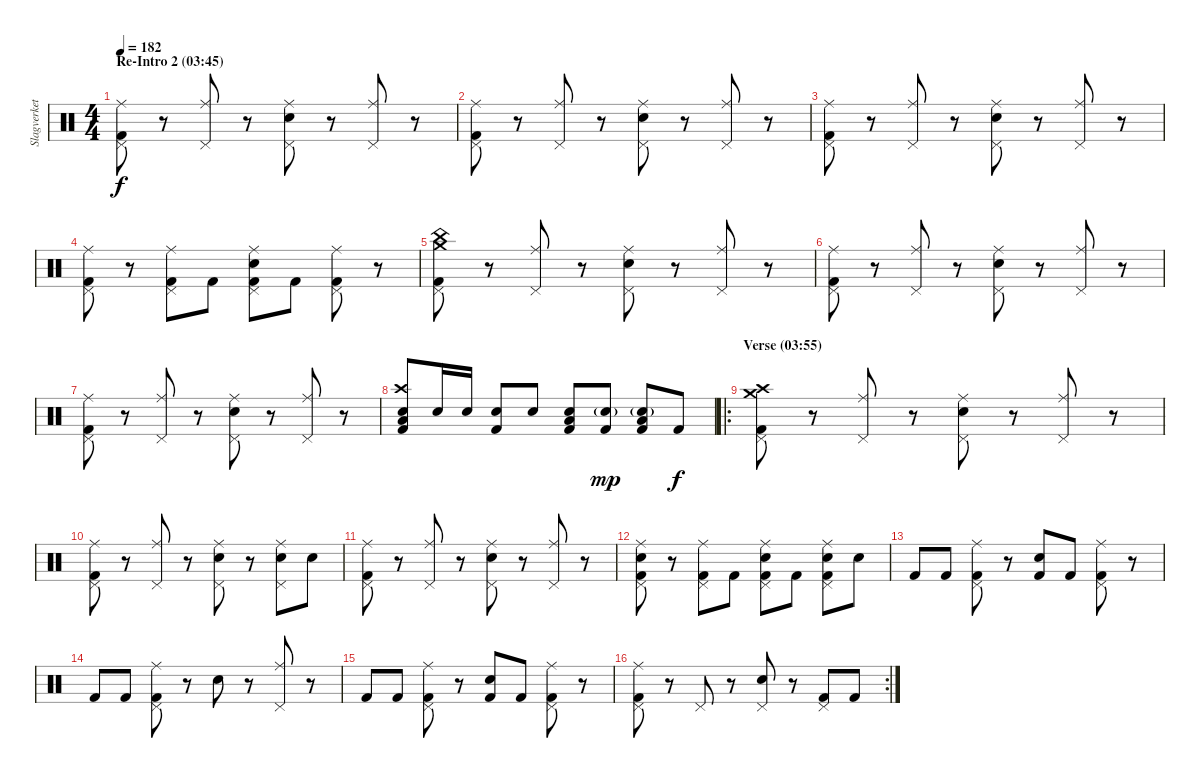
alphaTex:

\track ("Slagverket! =)" "Slagverket") {instrument percussion}
\staff {score}
\articulation defaults
\ts (4 4)
\section ("" "Re-Intro 2 (03:45)")
\tempo 182
\clef neutral
\ks c
("Ride (middle)" "Pedal Hi-Hat (hit)" "Kick (hit) 2").8{dy f} r.8 ("Ride (middle)" "Pedal Hi-Hat (hit)").8 r.8 ("Ride (middle)" "Pedal Hi-Hat (hit)" "Snare (hit) 2").8 r.8 ("Ride (middle)" "Pedal Hi-Hat (hit)").8 r.8 |
("Ride (middle)" "Pedal Hi-Hat (hit)" "Kick (hit) 2").8 r.8 ("Ride (middle)" "Pedal Hi-Hat (hit)").8 r.8 ("Ride (middle)" "Pedal Hi-Hat (hit)" "Snare (hit) 2").8 r.8 ("Ride (middle)" "Pedal Hi-Hat (hit)").8 r.8 |
("Ride (middle)" "Pedal Hi-Hat (hit)" "Kick (hit) 2").8 r.8 ("Ride (middle)" "Pedal Hi-Hat (hit)").8 r.8 ("Ride (middle)" "Pedal Hi-Hat (hit)" "Snare (hit) 2").8 r.8 ("Ride (middle)" "Pedal Hi-Hat (hit)").8 r.8 |
("Ride (middle)" "Pedal Hi-Hat (hit)" "Kick (hit) 2").8 r.8 ("Ride (middle)" "Pedal Hi-Hat (hit)" "Kick (hit) 2").8 "Kick (hit) 2".8 ("Ride (middle)" "Pedal Hi-Hat (hit)" "Snare (hit) 2" "Kick (hit) 2").8 "Kick (hit) 2".8 ("Ride (middle)" "Pedal Hi-Hat (hit)" "Kick (hit) 2").8 r.8 |
("China (hit)" "Pedal Hi-Hat (hit)" "Crash medium (hit)" "Kick (hit) 2").8 r.8 ("Ride (middle)" "Pedal Hi-Hat (hit)").8 r.8 ("Ride (middle)" "Pedal Hi-Hat (hit)" "Snare (hit) 2").8 r.8 ("Ride (middle)" "Pedal Hi-Hat (hit)").8 r.8 |
("Ride (middle)" "Pedal Hi-Hat (hit)" "Kick (hit) 2").8 r.8 ("Ride (middle)" "Pedal Hi-Hat (hit)").8 r.8 ("Ride (middle)" "Pedal Hi-Hat (hit)" "Snare (hit) 2").8 r.8 ("Ride (middle)" "Pedal Hi-Hat (hit)").8 r.8 |
("Ride (middle)" "Pedal Hi-Hat (hit)" "Kick (hit) 2").8 r.8 ("Ride (middle)" "Pedal Hi-Hat (hit)").8 r.8 ("Ride (middle)" "Pedal Hi-Hat (hit)" "Snare (hit) 2").8 r.8 ("Ride (middle)" "Pedal Hi-Hat (hit)").8 r.8 |
("Crash high (hit)" "Low Tom (hit)" "Snare (hit) 2" "Kick (hit) 2").8 "Snare (hit) 2".16 "Snare (hit) 2".16 ("Snare (hit) 2" "Kick (hit) 2").8 "Snare (hit) 2".8 ("Low Tom (hit)" "Snare (hit) 2" "Kick (hit) 2").8 ("Snare (hit) 2"{g} "Kick (hit) 2").8{dy mp} ("Low Tom (hit)" "Snare (hit) 2"{g} "Kick (hit) 2").8 "Kick (hit) 2".8{dy f} |
\ro
\section ("" "Verse (03:55)")
("Crash medium (hit)" "Pedal Hi-Hat (hit)" "Crash high (hit)" "Kick (hit) 2").8 r.8 ("Ride (middle)" "Pedal Hi-Hat (hit)").8 r.8 ("Ride (middle)" "Pedal Hi-Hat (hit)" "Snare (hit) 2").8 r.8 ("Ride (middle)" "Pedal Hi-Hat (hit)").8 r.8 |
("Ride (middle)" "Pedal Hi-Hat (hit)" "Kick (hit) 2").8 r.8 ("Ride (middle)" "Pedal Hi-Hat (hit)").8 r.8 ("Ride (middle)" "Pedal Hi-Hat (hit)" "Snare (hit) 2").8 r.8 ("Ride (middle)" "Pedal Hi-Hat (hit)" "Snare (hit) 2").8 "Snare (hit) 2".8 |
("Ride (middle)" "Pedal Hi-Hat (hit)" "Kick (hit) 2").8 r.8 ("Ride (middle)" "Pedal Hi-Hat (hit)").8 r.8 ("Ride (middle)" "Pedal Hi-Hat (hit)" "Snare (hit) 2").8 r.8 ("Ride (middle)" "Pedal Hi-Hat (hit)").8 r.8 |
("Ride (middle)" "Pedal Hi-Hat (hit)" "Snare (hit) 2" "Kick (hit) 2").8 r.8 ("Ride (middle)" "Pedal Hi-Hat (hit)" "Kick (hit) 2").8 "Kick (hit) 2".8 ("Ride (middle)" "Pedal Hi-Hat (hit)" "Snare (hit) 2" "Kick (hit) 2").8 "Kick (hit) 2".8 ("Ride (middle)" "Pedal Hi-Hat (hit)" "Snare (hit) 2" "Kick (hit) 2").8 "Snare (hit) 2".8 |
"Kick (hit) 2".8 "Kick (hit) 2".8 ("Ride (middle)" "Pedal Hi-Hat (hit)" "Kick (hit) 2").8 r.8 ("Snare (hit) 2" "Kick (hit) 2").8 "Kick (hit) 2".8 ("Ride (middle)" "Pedal Hi-Hat (hit)" "Kick (hit) 2").8 r.8 |
"Kick (hit) 2".8 "Kick (hit) 2".8 ("Ride (middle)" "Pedal Hi-Hat (hit)" "Kick (hit) 2").8 r.8 "Snare (hit) 2".8 r.8 ("Ride (middle)" "Pedal Hi-Hat (hit)").8 r.8 |
"Kick (hit) 2".8 "Kick (hit) 2".8 ("Ride (middle)" "Pedal Hi-Hat (hit)" "Kick (hit) 2").8 r.8 ("Snare (hit) 2" "Kick (hit) 2").8 "Kick (hit) 2".8 ("Ride (middle)" "Pedal Hi-Hat (hit)" "Kick (hit) 2").8 r.8 |
\rc 2
("Ride (middle)" "Pedal Hi-Hat (hit)" "Kick (hit) 2").8 r.8 "Pedal Hi-Hat (hit)".8 r.8 ("Pedal Hi-Hat (hit)" "Snare (hit) 2").8 r.8 ("Pedal Hi-Hat (hit)" "Kick (hit) 2").8 "Kick (hit) 2".8
